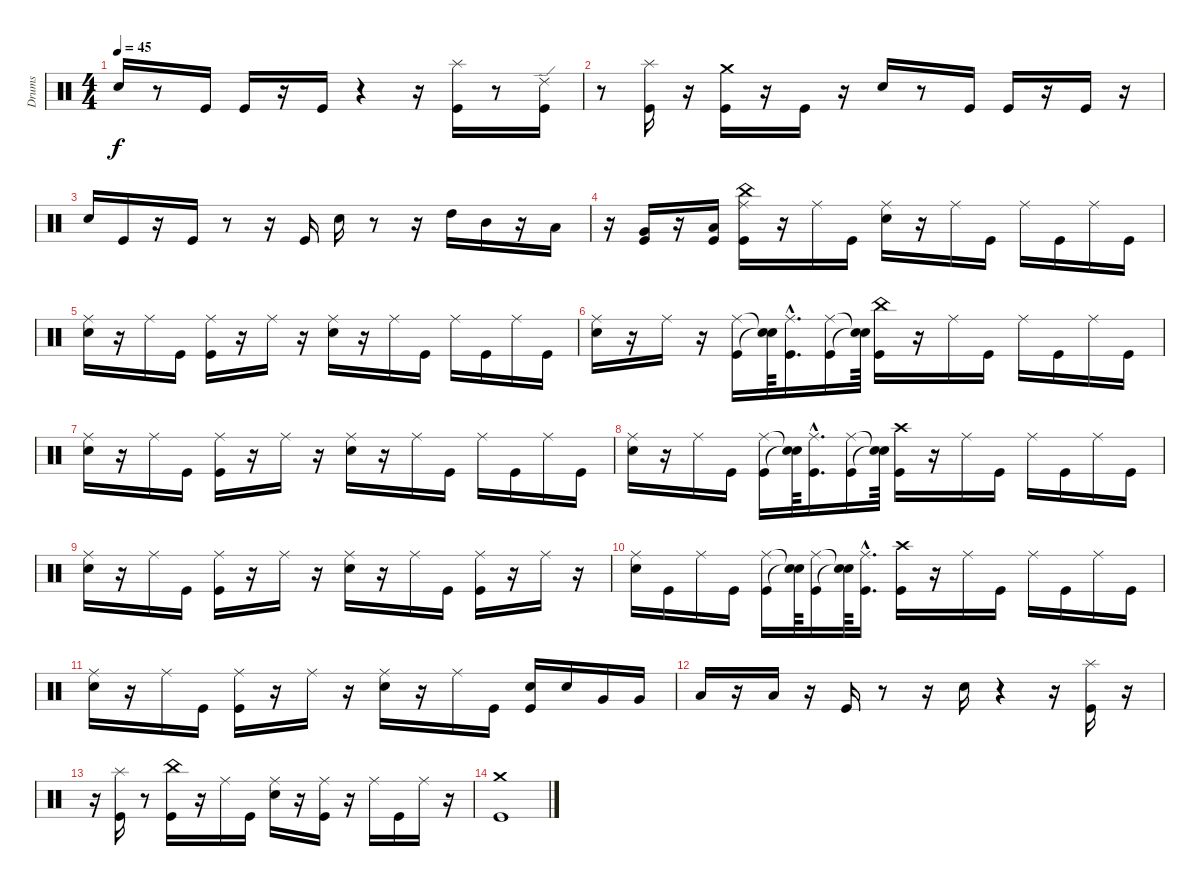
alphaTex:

\track ("Drums" "Drums") {instrument percussion}
\staff {score}
\articulation defaults
\ts (4 4)
\tempo 45
\clef neutral
\ks c "Electric Snare (hit)".16{dy f}
r.8 "Kick (hit)".16 "Kick (hit)".16 r.16 "Kick (hit)".16 r.4 r.16 ("Splash (hit)" "Kick (hit)").16 r.8 ("Ride (edge) 2" "Kick (hit)").16 |
r.8 ("Splash (hit)" "Kick (hit)").16 r.16 ("Crash medium (hit)" "Kick (hit)").16 r.16 "Kick (hit)".16 r.16 "Electric Snare (hit)".16 r.8 "Kick (hit)".16 "Kick (hit)".16 r.16 "Kick (hit)".16 r.16 |
"Electric Snare (hit)".16 "Kick (hit)".16 r.16 "Kick (hit)".16 r.8 r.16 "Kick (hit)".16 "Electric Snare (hit)".16 r.8 r.16 "High Tom (hit)".16 "Mid Tom (hit)".16 r.16 "Low Tom (hit)".16 |
r.16 ("Very Low Tom (hit)" "Kick (hit)").16 r.16 ("Low Floor Tom (hit)" "Kick (hit)").16 ("Ride (middle)" "China (hit)" "Kick (hit)").16 r.16 "Ride (middle)".16 "Kick (hit)".16 ("Ride (middle)" "Electric Snare (hit)").16 r.16 "Ride (middle)".16 "Kick (hit)".16 "Ride (middle)".16 "Kick (hit)".16 "Ride (middle)".16 "Kick (hit)".16 |
("Ride (middle)" "Electric Snare (hit)").16 r.16 "Ride (middle)".16 "Kick (hit)".16 ("Ride (middle)" "Kick (hit)").16 r.16 "Ride (middle)".16 r.16 ("Ride (middle)" "Electric Snare (hit)").16 r.16 "Ride (middle)".16 "Kick (hit)".16 "Ride (middle)".16 "Kick (hit)".16 "Ride (middle)".16 "Kick (hit)".16 |
("Ride (middle)" "Electric Snare (hit)").16 r.16 "Ride (middle)".16 r.16 ("Ride (middle)" "Kick (hit)").16 ("Snare (hit)"{t} "Snare (hit)"{t}).64 ("Ride (middle)"{hac} "Kick (hit)"{hac}).16{d} ("Ride (middle)" "Kick (hit)").16 ("Snare (hit)"{t} "Snare (hit)"{t}).64 ("China (hit)" "Kick (hit)").16 r.16 "Ride (middle)".16 "Kick (hit)".16 "Ride (middle)".16 "Kick (hit)".16 "Ride (middle)".16 "Kick (hit)".16 |
("Ride (middle)" "Electric Snare (hit)").16 r.16 "Ride (middle)".16 "Kick (hit)".16 ("Ride (middle)" "Kick (hit)").16 r.16 "Ride (middle)".16 r.16 ("Ride (middle)" "Electric Snare (hit)").16 r.16 "Ride (middle)".16 "Kick (hit)".16 "Ride (middle)".16 "Kick (hit)".16 "Ride (middle)".16 "Kick (hit)".16 |
("Ride (middle)" "Electric Snare (hit)").16 r.16 "Ride (middle)".16 "Kick (hit)".16 ("Ride (middle)" "Kick (hit)").16 ("Snare (hit)"{t} "Snare (hit)"{t}).64 ("Ride (middle)"{hac} "Kick (hit)"{hac}).16{d} ("Ride (middle)" "Kick (hit)").16 ("Snare (hit)"{t} "Snare (hit)"{t}).64 ("Crash high (hit)" "Kick (hit)").16 r.16 "Ride (middle)".16 "Kick (hit)".16 "Ride (middle)".16 "Kick (hit)".16 "Ride (middle)".16 "Kick (hit)".16 |
("Ride (middle)" "Electric Snare (hit)").16 r.16 "Ride (middle)".16 "Kick (hit)".16 ("Ride (middle)" "Kick (hit)").16 r.16 "Ride (middle)".16 r.16 ("Ride (middle)" "Electric Snare (hit)").16 r.16 "Ride (middle)".16 "Kick (hit)".16 ("Ride (middle)" "Kick (hit)").16 r.16 "Ride (middle)".16 r.16 |
("Ride (middle)" "Electric Snare (hit)").16 "Kick (hit)".16 "Ride (middle)".16 "Kick (hit)".16 ("Ride (middle)" "Kick (hit)").16 ("Snare (hit)"{t} "Snare (hit)"{t}).64 ("Ride (middle)" "Kick (hit)").16 ("Snare (hit)"{t} "Snare (hit)"{t}).64 ("Ride (middle)"{hac} "Kick (hit)"{hac}).16{d} ("Crash high (hit)" "Kick (hit)").16 r.16 "Ride (middle)".16 "Kick (hit)".16 "Ride (middle)".16 "Kick (hit)".16 "Ride (middle)".16 "Kick (hit)".16 |
("Ride (middle)" "Electric Snare (hit)").16 r.16 "Ride (middle)".16 "Kick (hit)".16 ("Ride (middle)" "Kick (hit)").16 r.16 "Ride (middle)".16 r.16 ("Ride (middle)" "Electric Snare (hit)").16 r.16 "Ride (middle)".16 "Kick (hit)".16 ("Electric Snare (hit)" "Kick (hit)").16 "Electric Snare (hit)".16 "Very Low Tom (hit)".16 "Very Low Tom (hit)".16 |
"Low Floor Tom (hit)".16 r.16 "Low Floor Tom (hit)".16 r.16 "Kick (hit)".16 r.8 r.16 "Electric Snare (hit)".16 r.4 r.16 ("Splash (hit)" "Kick (hit)").16 r.16 |
r.16 ("Splash (hit)" "Kick (hit)").16 r.8 ("China (hit)" "Kick (hit)").16 r.16 "Ride (middle)".16 "Kick (hit)".16 ("Ride (middle)" "Electric Snare (hit)").16 r.16 ("Ride (middle)" "Kick (hit)").16 r.16 "Ride (middle)".16 "Kick (hit)".16 "Ride (middle)".16 r.16 |
("Crash medium (hit)" "Kick (hit)").1
